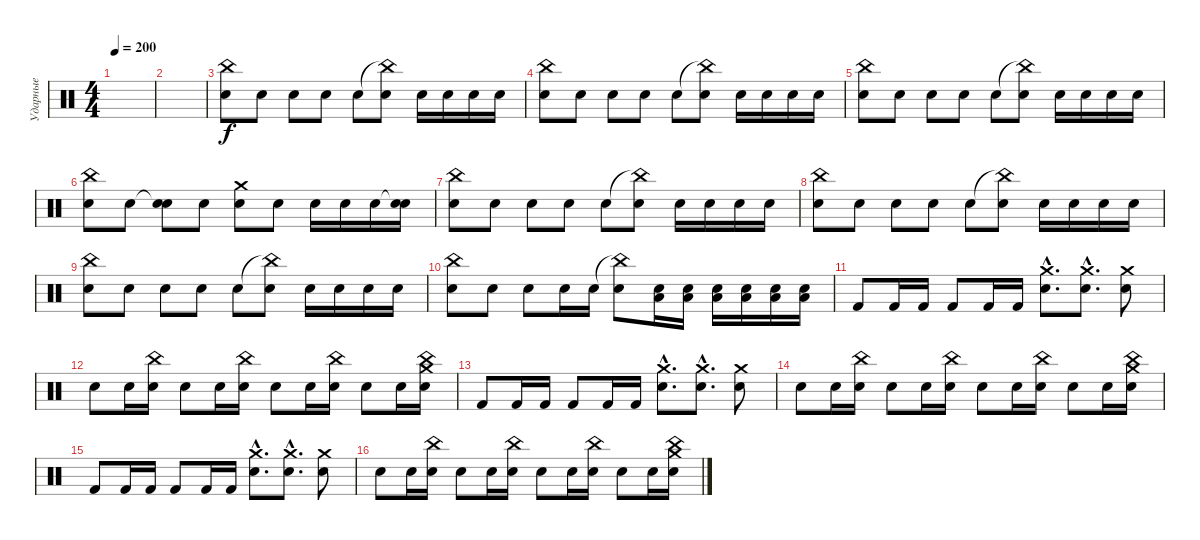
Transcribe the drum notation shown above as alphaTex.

\track ("Ударные" "Ударные") {instrument percussion}
\staff {score}
\articulation defaults
\ts (4 4)
\tempo 200
\clef neutral
\ks c
|
|
("China (hit)" "Snare (hit) 2").8 "Snare (hit) 2".8 "Snare (hit) 2".8 "Snare (hit) 2".8 "Snare (hit) 2".8 ("China (hit)"{t} "Snare (hit) 2").8 "Snare (hit) 2".16 "Snare (hit) 2".16 "Snare (hit) 2".16 "Snare (hit) 2".16 |
("China (hit)" "Snare (hit) 2").8 "Snare (hit) 2".8 "Snare (hit) 2".8 "Snare (hit) 2".8 "Snare (hit) 2".8 ("China (hit)"{t} "Snare (hit) 2").8 "Snare (hit) 2".16 "Snare (hit) 2".16 "Snare (hit) 2".16 "Snare (hit) 2".16 |
("China (hit)" "Snare (hit) 2").8 "Snare (hit) 2".8 "Snare (hit) 2".8 "Snare (hit) 2".8 "Snare (hit) 2".8 ("China (hit)"{t} "Snare (hit) 2").8 "Snare (hit) 2".16 "Snare (hit) 2".16 "Snare (hit) 2".16 "Snare (hit) 2".16 |
("China (hit)" "Snare (hit) 2").8 "Snare (hit) 2".8 ("Snare (hit)"{t} "Snare (hit) 2").8 "Snare (hit) 2".8 ("Crash medium (hit)" "Snare (hit) 2").8 "Snare (hit) 2".8 "Snare (hit) 2".16 "Snare (hit) 2".16 "Snare (hit) 2".16 ("Snare (hit)"{t} "Snare (hit) 2").16 |
("China (hit)" "Snare (hit) 2").8 "Snare (hit) 2".8 "Snare (hit) 2".8 "Snare (hit) 2".8 "Snare (hit) 2".8 ("China (hit)"{t} "Snare (hit) 2").8 "Snare (hit) 2".16 "Snare (hit) 2".16 "Snare (hit) 2".16 "Snare (hit) 2".16 |
("China (hit)" "Snare (hit) 2").8 "Snare (hit) 2".8 "Snare (hit) 2".8 "Snare (hit) 2".8 "Snare (hit) 2".8 ("China (hit)"{t} "Snare (hit) 2").8 "Snare (hit) 2".16 "Snare (hit) 2".16 "Snare (hit) 2".16 "Snare (hit) 2".16 |
("China (hit)" "Snare (hit) 2").8 "Snare (hit) 2".8 "Snare (hit) 2".8 "Snare (hit) 2".8 "Snare (hit) 2".8 ("China (hit)"{t} "Snare (hit) 2").8 "Snare (hit) 2".16 "Snare (hit) 2".16 "Snare (hit) 2".16 "Snare (hit) 2".16 |
("China (hit)" "Snare (hit) 2").8 "Snare (hit) 2".8 "Snare (hit) 2".8 "Snare (hit) 2".16 "Snare (hit) 2".16 ("China (hit)"{t} "Snare (hit) 2").8 ("Low Floor Tom (hit)" "Electric Snare (hit)").16 ("Low Floor Tom (hit)" "Electric Snare (hit)").16 ("Low Floor Tom (hit)" "Electric Snare (hit)").16 ("Low Floor Tom (hit)" "Electric Snare (hit)").16 ("Low Floor Tom (hit)" "Electric Snare (hit)").16 ("Low Floor Tom (hit)" "Electric Snare (hit)").16 |
"Kick (hit) 2".8 "Kick (hit) 2".16 "Kick (hit) 2".16 "Kick (hit) 2".8 "Kick (hit) 2".16 "Kick (hit) 2".16 ("Snare (hit) 2"{hac} "Crash medium (hit)"{hac}).8{d} ("Snare (hit) 2"{hac} "Crash medium (hit)"{hac}).8{d} ("Snare (hit) 2" "Crash medium (hit)").8 |
"Snare (hit) 2".8 "Snare (hit) 2".16 ("Snare (hit) 2" "China (hit)").16 "Snare (hit) 2".8 "Snare (hit) 2".16 ("Snare (hit) 2" "China (hit)").16 "Snare (hit) 2".8 "Snare (hit) 2".16 ("Snare (hit) 2" "China (hit)").16 "Snare (hit) 2".8 "Snare (hit) 2".16 ("Snare (hit) 2" "Crash medium (hit)" "China (hit)").16 |
"Kick (hit) 2".8 "Kick (hit) 2".16 "Kick (hit) 2".16 "Kick (hit) 2".8 "Kick (hit) 2".16 "Kick (hit) 2".16 ("Snare (hit) 2"{hac} "Crash medium (hit)"{hac}).8{d} ("Snare (hit) 2"{hac} "Crash medium (hit)"{hac}).8{d} ("Snare (hit) 2" "Crash medium (hit)").8 |
"Snare (hit) 2".8 "Snare (hit) 2".16 ("Snare (hit) 2" "China (hit)").16 "Snare (hit) 2".8 "Snare (hit) 2".16 ("Snare (hit) 2" "China (hit)").16 "Snare (hit) 2".8 "Snare (hit) 2".16 ("Snare (hit) 2" "China (hit)").16 "Snare (hit) 2".8 "Snare (hit) 2".16 ("Snare (hit) 2" "Crash medium (hit)" "China (hit)").16 |
"Kick (hit) 2".8 "Kick (hit) 2".16 "Kick (hit) 2".16 "Kick (hit) 2".8 "Kick (hit) 2".16 "Kick (hit) 2".16 ("Snare (hit) 2"{hac} "Crash medium (hit)"{hac}).8{d} ("Snare (hit) 2"{hac} "Crash medium (hit)"{hac}).8{d} ("Snare (hit) 2" "Crash medium (hit)").8 |
"Snare (hit) 2".8 "Snare (hit) 2".16 ("Snare (hit) 2" "China (hit)").16 "Snare (hit) 2".8 "Snare (hit) 2".16 ("Snare (hit) 2" "China (hit)").16 "Snare (hit) 2".8 "Snare (hit) 2".16 ("Snare (hit) 2" "China (hit)").16 "Snare (hit) 2".8 "Snare (hit) 2".16 ("Snare (hit) 2" "Crash medium (hit)" "China (hit)").16
